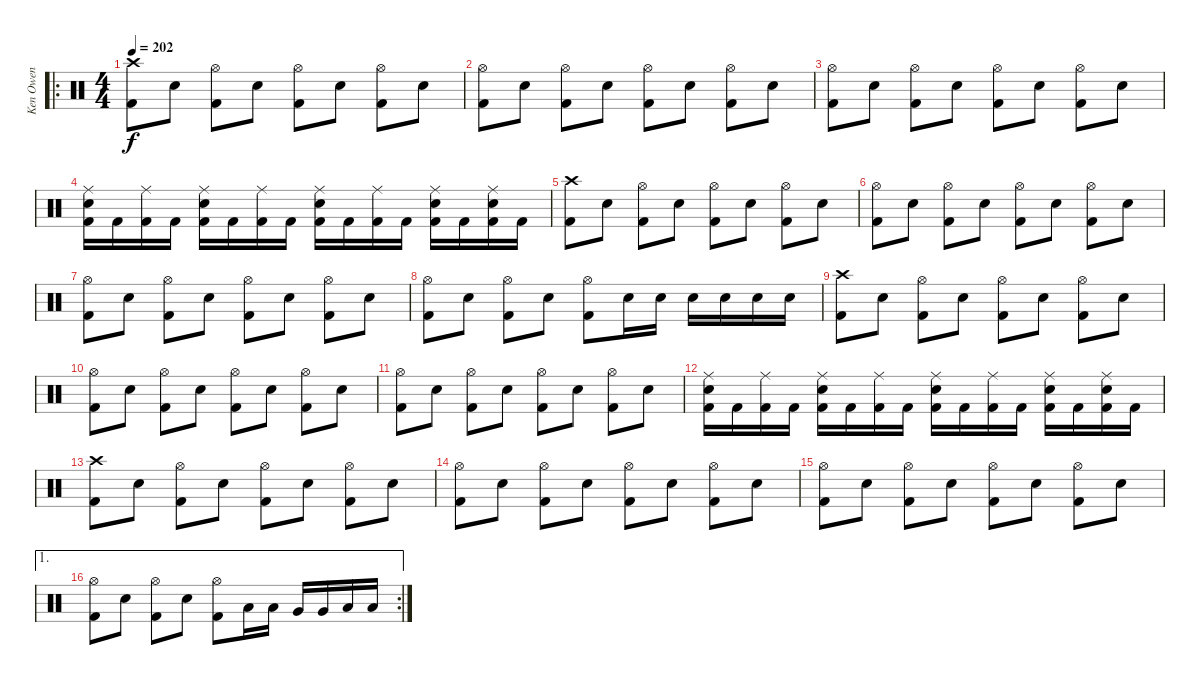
\track ("Ken Owen" "Ken Owen") {instrument percussion}
\staff {score}
\articulation defaults
\ro
\ts (4 4)
\tempo 202
\clef neutral
\ks c
("Crash high (hit)" "Kick (hit) 2").8{dy f} "Snare (hit) 2".8 ("Hi-Hat (open)" "Kick (hit) 2").8 "Snare (hit) 2".8 ("Hi-Hat (open)" "Kick (hit) 2").8 "Snare (hit) 2".8 ("Hi-Hat (open)" "Kick (hit) 2").8 "Snare (hit) 2".8 |
("Hi-Hat (open)" "Kick (hit) 2").8 "Snare (hit) 2".8 ("Hi-Hat (open)" "Kick (hit) 2").8 "Snare (hit) 2".8 ("Hi-Hat (open)" "Kick (hit) 2").8 "Snare (hit) 2".8 ("Hi-Hat (open)" "Kick (hit) 2").8 "Snare (hit) 2".8 |
("Hi-Hat (open)" "Kick (hit) 2").8 "Snare (hit) 2".8 ("Hi-Hat (open)" "Kick (hit) 2").8 "Snare (hit) 2".8 ("Hi-Hat (open)" "Kick (hit) 2").8 "Snare (hit) 2".8 ("Hi-Hat (open)" "Kick (hit) 2").8 "Snare (hit) 2".8 |
("Ride (middle)" "Snare (hit) 2" "Kick (hit) 2").16 "Kick (hit) 2".16 ("Ride (middle)" "Kick (hit) 2").16 "Kick (hit) 2".16 ("Ride (middle)" "Snare (hit) 2" "Kick (hit) 2").16 "Kick (hit) 2".16 ("Ride (middle)" "Kick (hit) 2").16 "Kick (hit) 2".16 ("Ride (middle)" "Snare (hit) 2" "Kick (hit) 2").16 "Kick (hit) 2".16 ("Ride (middle)" "Kick (hit) 2").16 "Kick (hit) 2".16 ("Ride (middle)" "Snare (hit) 2" "Kick (hit) 2").16 "Kick (hit) 2".16 ("Ride (middle)" "Snare (hit) 2" "Kick (hit) 2").16 "Kick (hit) 2".16 |
("Crash high (hit)" "Kick (hit) 2").8 "Snare (hit) 2".8 ("Hi-Hat (open)" "Kick (hit) 2").8 "Snare (hit) 2".8 ("Hi-Hat (open)" "Kick (hit) 2").8 "Snare (hit) 2".8 ("Hi-Hat (open)" "Kick (hit) 2").8 "Snare (hit) 2".8 |
("Hi-Hat (open)" "Kick (hit) 2").8 "Snare (hit) 2".8 ("Hi-Hat (open)" "Kick (hit) 2").8 "Snare (hit) 2".8 ("Hi-Hat (open)" "Kick (hit) 2").8 "Snare (hit) 2".8 ("Hi-Hat (open)" "Kick (hit) 2").8 "Snare (hit) 2".8 |
("Hi-Hat (open)" "Kick (hit) 2").8 "Snare (hit) 2".8 ("Hi-Hat (open)" "Kick (hit) 2").8 "Snare (hit) 2".8 ("Hi-Hat (open)" "Kick (hit) 2").8 "Snare (hit) 2".8 ("Hi-Hat (open)" "Kick (hit) 2").8 "Snare (hit) 2".8 |
("Hi-Hat (open)" "Kick (hit) 2").8 "Snare (hit) 2".8 ("Hi-Hat (open)" "Kick (hit) 2").8 "Snare (hit) 2".8 ("Hi-Hat (open)" "Kick (hit) 2").8 "Snare (hit) 2".16 "Snare (hit) 2".16 "Snare (hit) 2".16 "Snare (hit) 2".16 "Snare (hit) 2".16 "Snare (hit) 2".16 |
("Crash high (hit)" "Kick (hit) 2").8 "Snare (hit) 2".8 ("Hi-Hat (open)" "Kick (hit) 2").8 "Snare (hit) 2".8 ("Hi-Hat (open)" "Kick (hit) 2").8 "Snare (hit) 2".8 ("Hi-Hat (open)" "Kick (hit) 2").8 "Snare (hit) 2".8 |
("Hi-Hat (open)" "Kick (hit) 2").8 "Snare (hit) 2".8 ("Hi-Hat (open)" "Kick (hit) 2").8 "Snare (hit) 2".8 ("Hi-Hat (open)" "Kick (hit) 2").8 "Snare (hit) 2".8 ("Hi-Hat (open)" "Kick (hit) 2").8 "Snare (hit) 2".8 |
("Hi-Hat (open)" "Kick (hit) 2").8 "Snare (hit) 2".8 ("Hi-Hat (open)" "Kick (hit) 2").8 "Snare (hit) 2".8 ("Hi-Hat (open)" "Kick (hit) 2").8 "Snare (hit) 2".8 ("Hi-Hat (open)" "Kick (hit) 2").8 "Snare (hit) 2".8 |
("Ride (middle)" "Snare (hit) 2" "Kick (hit) 2").16 "Kick (hit) 2".16 ("Ride (middle)" "Kick (hit) 2").16 "Kick (hit) 2".16 ("Ride (middle)" "Snare (hit) 2" "Kick (hit) 2").16 "Kick (hit) 2".16 ("Ride (middle)" "Kick (hit) 2").16 "Kick (hit) 2".16 ("Ride (middle)" "Snare (hit) 2" "Kick (hit) 2").16 "Kick (hit) 2".16 ("Ride (middle)" "Kick (hit) 2").16 "Kick (hit) 2".16 ("Ride (middle)" "Snare (hit) 2" "Kick (hit) 2").16 "Kick (hit) 2".16 ("Ride (middle)" "Snare (hit) 2" "Kick (hit) 2").16 "Kick (hit) 2".16 |
("Crash high (hit)" "Kick (hit) 2").8 "Snare (hit) 2".8 ("Hi-Hat (open)" "Kick (hit) 2").8 "Snare (hit) 2".8 ("Hi-Hat (open)" "Kick (hit) 2").8 "Snare (hit) 2".8 ("Hi-Hat (open)" "Kick (hit) 2").8 "Snare (hit) 2".8 |
("Hi-Hat (open)" "Kick (hit) 2").8 "Snare (hit) 2".8 ("Hi-Hat (open)" "Kick (hit) 2").8 "Snare (hit) 2".8 ("Hi-Hat (open)" "Kick (hit) 2").8 "Snare (hit) 2".8 ("Hi-Hat (open)" "Kick (hit) 2").8 "Snare (hit) 2".8 |
("Hi-Hat (open)" "Kick (hit) 2").8 "Snare (hit) 2".8 ("Hi-Hat (open)" "Kick (hit) 2").8 "Snare (hit) 2".8 ("Hi-Hat (open)" "Kick (hit) 2").8 "Snare (hit) 2".8 ("Hi-Hat (open)" "Kick (hit) 2").8 "Snare (hit) 2".8 |
\ae 1
\rc 2
("Hi-Hat (open)" "Kick (hit) 2").8 "Snare (hit) 2".8 ("Hi-Hat (open)" "Kick (hit) 2").8 "Snare (hit) 2".8 ("Hi-Hat (open)" "Kick (hit) 2").8 "Low Tom (hit)".16 "Low Tom (hit)".16 "Very Low Tom (hit)".16 "Very Low Tom (hit)".16 "Low Floor Tom (hit)".16 "Low Floor Tom (hit)".16
